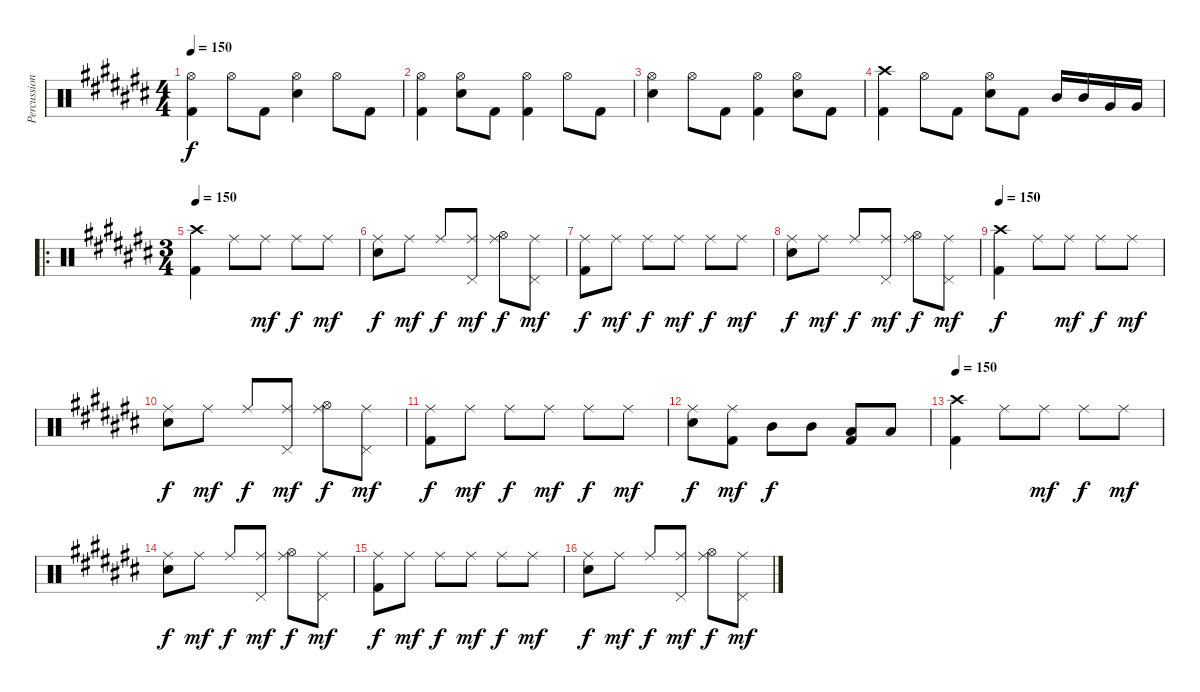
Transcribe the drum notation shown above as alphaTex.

\track ("Percussion" "Percussion") {instrument percussion}
\staff {score}
\articulation defaults
\ts (4 4)
\tempo 150
\clef neutral
\ks c#
("Hi-Hat (open)" "Kick (hit) 2").4{dy f} "Hi-Hat (open)".8 "Kick (hit) 2".8 ("Hi-Hat (open)" "Electric Snare (hit)").4 "Hi-Hat (open)".8 "Kick (hit) 2".8 |
("Hi-Hat (open)" "Kick (hit) 2").4 ("Hi-Hat (open)" "Electric Snare (hit)").8 "Kick (hit) 2".8 ("Hi-Hat (open)" "Kick (hit) 2").4 "Hi-Hat (open)".8 "Kick (hit) 2".8 |
("Hi-Hat (open)" "Electric Snare (hit)").4 "Hi-Hat (open)".8 "Kick (hit) 2".8 ("Hi-Hat (open)" "Kick (hit) 2").4 ("Hi-Hat (open)" "Electric Snare (hit)").8 "Kick (hit) 2".8 |
("Crash high (hit)" "Kick (hit) 2").4 "Hi-Hat (open)".8 "Kick (hit) 2".8 ("Hi-Hat (open)" "Electric Snare (hit)").8 "Kick (hit) 2".8 "Mid Tom (hit)".16 "Mid Tom (hit)".16 "Very Low Tom (hit)".16 "Very Low Tom (hit)".16 |
\ro
\ts (3 4)
\tempo 150
("Crash high (hit)" "Kick (hit) 2").4 "Ride (middle)".8 "Ride (middle)".8{dy mf} "Ride (middle)".8{dy f} "Ride (middle)".8{dy mf} |
("Ride (middle)" "Electric Snare (hit)").8{dy f} "Ride (middle)".8{dy mf} "Ride (middle)".8{dy f} ("Ride (middle)" "Pedal Hi-Hat (hit)").8{dy mf} ("Ride (middle)" "Hi-Hat (open)").8{dy f} ("Ride (middle)" "Pedal Hi-Hat (hit)").8{dy mf} |
("Ride (middle)" "Kick (hit) 2").8{dy f} "Ride (middle)".8{dy mf} "Ride (middle)".8{dy f} "Ride (middle)".8{dy mf} "Ride (middle)".8{dy f} "Ride (middle)".8{dy mf} |
("Ride (middle)" "Electric Snare (hit)").8{dy f} "Ride (middle)".8{dy mf} "Ride (middle)".8{dy f} ("Ride (middle)" "Pedal Hi-Hat (hit)").8{dy mf} ("Ride (middle)" "Hi-Hat (open)").8{dy f} ("Ride (middle)" "Pedal Hi-Hat (hit)").8{dy mf} |
\tempo 150
("Crash high (hit)" "Kick (hit) 2").4{dy f} "Ride (middle)".8 "Ride (middle)".8{dy mf} "Ride (middle)".8{dy f} "Ride (middle)".8{dy mf} |
("Ride (middle)" "Electric Snare (hit)").8{dy f} "Ride (middle)".8{dy mf} "Ride (middle)".8{dy f} ("Ride (middle)" "Pedal Hi-Hat (hit)").8{dy mf} ("Ride (middle)" "Hi-Hat (open)").8{dy f} ("Ride (middle)" "Pedal Hi-Hat (hit)").8{dy mf} |
("Ride (middle)" "Kick (hit) 2").8{dy f} "Ride (middle)".8{dy mf} "Ride (middle)".8{dy f} "Ride (middle)".8{dy mf} "Ride (middle)".8{dy f} "Ride (middle)".8{dy mf} |
("Ride (middle)" "Electric Snare (hit)").8{dy f} ("Ride (middle)" "Kick (hit) 2").8{dy mf} "Mid Tom (hit)".8{dy f} "Mid Tom (hit)".8 ("Low Tom (hit)" "Kick (hit) 2").8 "Low Tom (hit)".8 |
\tempo 150
("Crash high (hit)" "Kick (hit) 2").4 "Ride (middle)".8 "Ride (middle)".8{dy mf} "Ride (middle)".8{dy f} "Ride (middle)".8{dy mf} |
("Ride (middle)" "Electric Snare (hit)").8{dy f} "Ride (middle)".8{dy mf} "Ride (middle)".8{dy f} ("Ride (middle)" "Pedal Hi-Hat (hit)").8{dy mf} ("Ride (middle)" "Hi-Hat (open)").8{dy f} ("Ride (middle)" "Pedal Hi-Hat (hit)").8{dy mf} |
("Ride (middle)" "Kick (hit) 2").8{dy f} "Ride (middle)".8{dy mf} "Ride (middle)".8{dy f} "Ride (middle)".8{dy mf} "Ride (middle)".8{dy f} "Ride (middle)".8{dy mf} |
("Ride (middle)" "Electric Snare (hit)").8{dy f} "Ride (middle)".8{dy mf} "Ride (middle)".8{dy f} ("Ride (middle)" "Pedal Hi-Hat (hit)").8{dy mf} ("Ride (middle)" "Hi-Hat (open)").8{dy f} ("Ride (middle)" "Pedal Hi-Hat (hit)").8{dy mf}
